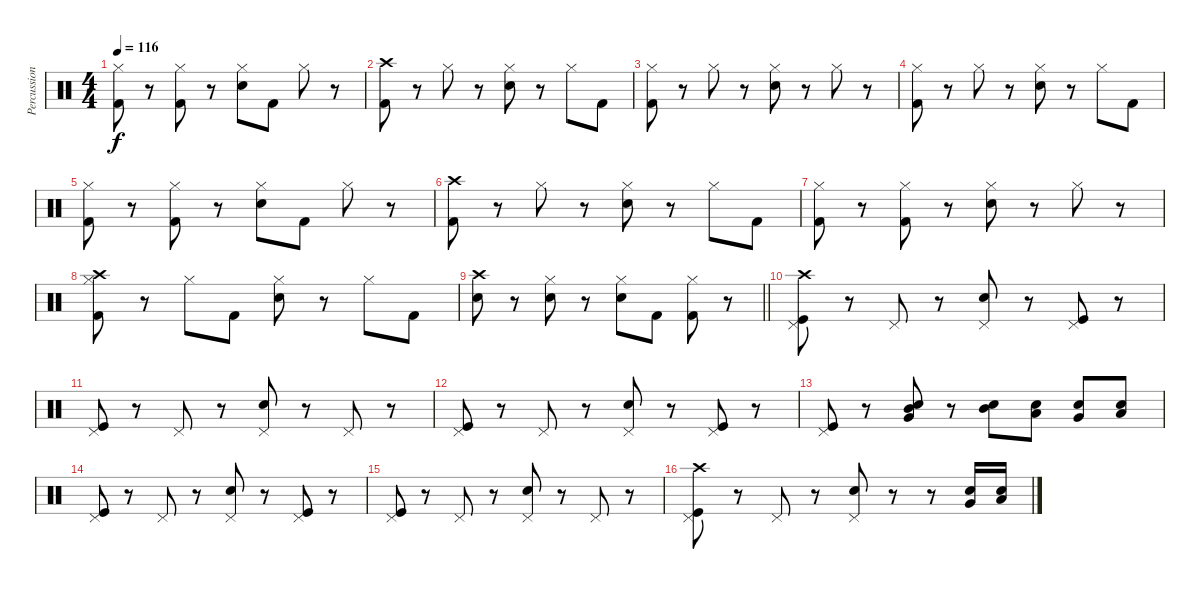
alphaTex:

\track ("Percussion" "Percussion") {instrument percussion}
\staff {score}
\articulation defaults
\ts (4 4)
\tempo 116
\clef neutral
\ks c
("Hi-Hat (closed)" "Kick (hit) 2").8{dy f} r.8 ("Hi-Hat (closed)" "Kick (hit) 2").8 r.8 ("Hi-Hat (closed)" "Snare (hit) 2").8 "Kick (hit) 2".8 "Hi-Hat (closed)".8 r.8 |
("Crash high (hit)" "Kick (hit) 2").8 r.8 "Hi-Hat (closed)".8 r.8 ("Hi-Hat (closed)" "Snare (hit) 2").8 r.8 "Hi-Hat (closed)".8 "Kick (hit) 2".8 |
("Hi-Hat (closed)" "Kick (hit) 2").8 r.8 "Hi-Hat (closed)".8 r.8 ("Hi-Hat (closed)" "Snare (hit) 2").8 r.8 "Hi-Hat (closed)".8 r.8 |
("Hi-Hat (closed)" "Kick (hit) 2").8 r.8 "Hi-Hat (closed)".8 r.8 ("Hi-Hat (closed)" "Snare (hit) 2").8 r.8 "Hi-Hat (closed)".8 "Kick (hit) 2".8 |
("Hi-Hat (closed)" "Kick (hit) 2").8 r.8 ("Hi-Hat (closed)" "Kick (hit) 2").8 r.8 ("Hi-Hat (closed)" "Snare (hit) 2").8 "Kick (hit) 2".8 "Hi-Hat (closed)".8 r.8 |
("Crash high (hit)" "Kick (hit) 2").8 r.8 "Hi-Hat (closed)".8 r.8 ("Hi-Hat (closed)" "Snare (hit) 2").8 r.8 "Hi-Hat (closed)".8 "Kick (hit) 2".8 |
("Hi-Hat (closed)" "Kick (hit) 2").8 r.8 ("Hi-Hat (closed)" "Kick (hit) 2").8 r.8 ("Hi-Hat (closed)" "Snare (hit) 2").8 r.8 "Hi-Hat (closed)".8 r.8 |
("Crash high (hit)" "Hi-Hat (closed)" "Kick (hit) 2").8 r.8 "Hi-Hat (closed)".8 "Kick (hit) 2".8 ("Hi-Hat (closed)" "Snare (hit) 2").8 r.8 "Hi-Hat (closed)".8 "Kick (hit) 2".8 |
\barLineRight lightlight
("Crash high (hit)" "Snare (hit) 2").8 r.8 ("Hi-Hat (closed)" "Snare (hit) 2").8 r.8 ("Hi-Hat (closed)" "Snare (hit) 2").8 "Kick (hit) 2".8 ("Hi-Hat (closed)" "Kick (hit) 2").8 r.8 |
("Kick (hit)" "Crash high (hit)" "Pedal Hi-Hat (hit)").8 r.8 "Pedal Hi-Hat (hit)".8 r.8 ("Snare (hit) 2" "Pedal Hi-Hat (hit)").8 r.8 ("Kick (hit)" "Pedal Hi-Hat (hit)").8 r.8 |
("Kick (hit)" "Pedal Hi-Hat (hit)").8 r.8 "Pedal Hi-Hat (hit)".8 r.8 ("Snare (hit) 2" "Pedal Hi-Hat (hit)").8 r.8 "Pedal Hi-Hat (hit)".8 r.8 |
("Kick (hit)" "Pedal Hi-Hat (hit)").8 r.8 "Pedal Hi-Hat (hit)".8 r.8 ("Snare (hit) 2" "Pedal Hi-Hat (hit)").8 r.8 ("Kick (hit)" "Pedal Hi-Hat (hit)").8 r.8 |
("Kick (hit)" "Pedal Hi-Hat (hit)").8 r.8 ("Snare (hit) 2" "Mid Tom (hit)" "Very Low Tom (hit)").8 r.8 ("Snare (hit) 2" "Mid Tom (hit)").8 ("Low Tom (hit)" "Snare (hit) 2").8 ("Snare (hit) 2" "Very Low Tom (hit)").8 ("Snare (hit) 2" "Low Floor Tom (hit)").8 |
("Kick (hit)" "Pedal Hi-Hat (hit)").8 r.8 "Pedal Hi-Hat (hit)".8 r.8 ("Snare (hit) 2" "Pedal Hi-Hat (hit)").8 r.8 ("Kick (hit)" "Pedal Hi-Hat (hit)").8 r.8 |
("Kick (hit)" "Pedal Hi-Hat (hit)").8 r.8 "Pedal Hi-Hat (hit)".8 r.8 ("Snare (hit) 2" "Pedal Hi-Hat (hit)").8 r.8 "Pedal Hi-Hat (hit)".8 r.8 |
("Kick (hit)" "Crash high (hit)" "Pedal Hi-Hat (hit)").8 r.8 "Pedal Hi-Hat (hit)".8 r.8 ("Snare (hit) 2" "Pedal Hi-Hat (hit)").8 r.8 r.8 ("Snare (hit) 2" "Very Low Tom (hit)").16 ("Snare (hit) 2" "Low Floor Tom (hit)").16
